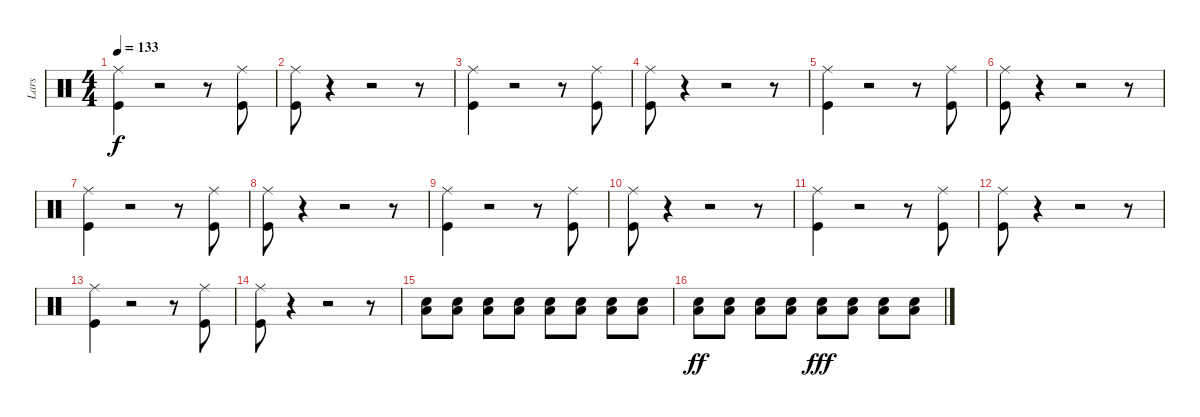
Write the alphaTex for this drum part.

\track ("Lars" "Lars") {instrument percussion}
\staff {score}
\articulation defaults
\ts (4 4)
\tempo 133
\clef neutral
\ks c
("Kick (hit)" "Ride (middle)").4{dy f} r.2 r.8 ("Kick (hit)" "Ride (middle)").8 |
("Kick (hit)" "Ride (middle)").8 r.4 r.2 r.8 |
("Kick (hit)" "Ride (middle)").4 r.2 r.8 ("Kick (hit)" "Ride (middle)").8 |
("Kick (hit)" "Ride (middle)").8 r.4 r.2 r.8 |
("Kick (hit)" "Ride (middle)").4 r.2 r.8 ("Kick (hit)" "Ride (middle)").8 |
("Kick (hit)" "Ride (middle)").8 r.4 r.2 r.8 |
("Kick (hit)" "Ride (middle)").4 r.2 r.8 ("Kick (hit)" "Ride (middle)").8 |
("Kick (hit)" "Ride (middle)").8 r.4 r.2 r.8 |
("Kick (hit)" "Ride (middle)").4 r.2 r.8 ("Kick (hit)" "Ride (middle)").8 |
("Kick (hit)" "Ride (middle)").8 r.4 r.2 r.8 |
("Kick (hit)" "Ride (middle)").4 r.2 r.8 ("Kick (hit)" "Ride (middle)").8 |
("Kick (hit)" "Ride (middle)").8 r.4 r.2 r.8 |
("Kick (hit)" "Ride (middle)").4 r.2 r.8 ("Kick (hit)" "Ride (middle)").8 |
("Kick (hit)" "Ride (middle)").8 r.4 r.2 r.8 |
("Electric Snare (hit)" "Low Floor Tom (hit)").8 ("Electric Snare (hit)" "Low Floor Tom (hit)").8 ("Electric Snare (hit)" "Low Floor Tom (hit)").8 ("Electric Snare (hit)" "Low Floor Tom (hit)").8 ("Electric Snare (hit)" "Low Floor Tom (hit)").8 ("Electric Snare (hit)" "Low Floor Tom (hit)").8 ("Electric Snare (hit)" "Low Floor Tom (hit)").8 ("Electric Snare (hit)" "Low Floor Tom (hit)").8 |
("Electric Snare (hit)" "Low Floor Tom (hit)").8{dy ff} ("Electric Snare (hit)" "Low Floor Tom (hit)").8 ("Electric Snare (hit)" "Low Floor Tom (hit)").8 ("Electric Snare (hit)" "Low Floor Tom (hit)").8 ("Electric Snare (hit)" "Low Floor Tom (hit)").8{dy fff} ("Electric Snare (hit)" "Low Floor Tom (hit)").8 ("Electric Snare (hit)" "Low Floor Tom (hit)").8 ("Electric Snare (hit)" "Low Floor Tom (hit)").8
